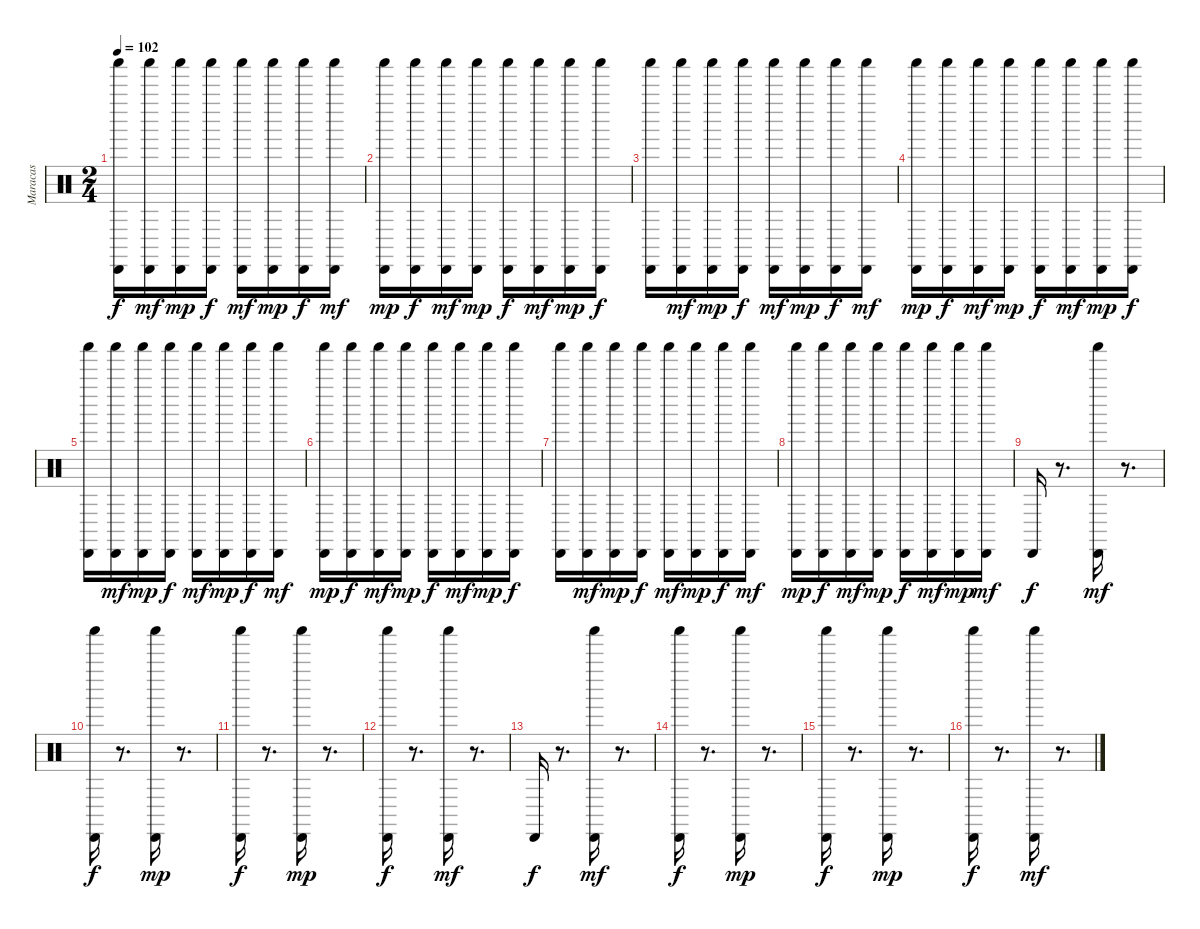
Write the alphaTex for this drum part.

\track ("Maracas" "Maracas") {instrument percussion}
\staff {score}
\articulation defaults
\ts (2 4)
\tempo 102
\clef neutral
\ks c
("Shaker (hit)" "Cabasa (hit)").16{dy f} ("Shaker (hit)" "Cabasa (hit)").16{dy mf} ("Shaker (hit)" "Cabasa (hit)").16{dy mp} ("Shaker (hit)" "Cabasa (hit)").16{dy f} ("Shaker (hit)" "Cabasa (hit)").16{dy mf} ("Shaker (hit)" "Cabasa (hit)").16{dy mp} ("Shaker (hit)" "Cabasa (hit)").16{dy f} ("Shaker (hit)" "Cabasa (hit)").16{dy mf} |
("Shaker (hit)" "Cabasa (hit)").16{dy mp} ("Shaker (hit)" "Cabasa (hit)").16{dy f} ("Shaker (hit)" "Cabasa (hit)").16{dy mf} ("Shaker (hit)" "Cabasa (hit)").16{dy mp} ("Shaker (hit)" "Cabasa (hit)").16{dy f} ("Shaker (hit)" "Cabasa (hit)").16{dy mf} ("Shaker (hit)" "Cabasa (hit)").16{dy mp} ("Shaker (hit)" "Cabasa (hit)").16{dy f} |
("Cabasa (hit)" "Shaker (hit)").16 ("Cabasa (hit)" "Shaker (hit)").16{dy mf} ("Cabasa (hit)" "Shaker (hit)").16{dy mp} ("Cabasa (hit)" "Shaker (hit)").16{dy f} ("Cabasa (hit)" "Shaker (hit)").16{dy mf} ("Cabasa (hit)" "Shaker (hit)").16{dy mp} ("Cabasa (hit)" "Shaker (hit)").16{dy f} ("Cabasa (hit)" "Shaker (hit)").16{dy mf} |
("Cabasa (hit)" "Shaker (hit)").16{dy mp} ("Cabasa (hit)" "Shaker (hit)").16{dy f} ("Cabasa (hit)" "Shaker (hit)").16{dy mf} ("Cabasa (hit)" "Shaker (hit)").16{dy mp} ("Cabasa (hit)" "Shaker (hit)").16{dy f} ("Cabasa (hit)" "Shaker (hit)").16{dy mf} ("Cabasa (hit)" "Shaker (hit)").16{dy mp} ("Cabasa (hit)" "Shaker (hit)").16{dy f} |
("Cabasa (hit)" "Shaker (hit)").16 ("Cabasa (hit)" "Shaker (hit)").16{dy mf} ("Cabasa (hit)" "Shaker (hit)").16{dy mp} ("Cabasa (hit)" "Shaker (hit)").16{dy f} ("Cabasa (hit)" "Shaker (hit)").16{dy mf} ("Cabasa (hit)" "Shaker (hit)").16{dy mp} ("Cabasa (hit)" "Shaker (hit)").16{dy f} ("Cabasa (hit)" "Shaker (hit)").16{dy mf} |
("Cabasa (hit)" "Shaker (hit)").16{dy mp} ("Cabasa (hit)" "Shaker (hit)").16{dy f} ("Cabasa (hit)" "Shaker (hit)").16{dy mf} ("Cabasa (hit)" "Shaker (hit)").16{dy mp} ("Cabasa (hit)" "Shaker (hit)").16{dy f} ("Cabasa (hit)" "Shaker (hit)").16{dy mf} ("Cabasa (hit)" "Shaker (hit)").16{dy mp} ("Cabasa (hit)" "Shaker (hit)").16{dy f} |
("Cabasa (hit)" "Shaker (hit)").16 ("Cabasa (hit)" "Shaker (hit)").16{dy mf} ("Cabasa (hit)" "Shaker (hit)").16{dy mp} ("Cabasa (hit)" "Shaker (hit)").16{dy f} ("Cabasa (hit)" "Shaker (hit)").16{dy mf} ("Cabasa (hit)" "Shaker (hit)").16{dy mp} ("Cabasa (hit)" "Shaker (hit)").16{dy f} ("Cabasa (hit)" "Shaker (hit)").16{dy mf} |
("Cabasa (hit)" "Shaker (hit)").16{dy mp} ("Cabasa (hit)" "Shaker (hit)").16{dy f} ("Cabasa (hit)" "Shaker (hit)").16{dy mf} ("Cabasa (hit)" "Shaker (hit)").16{dy mp} ("Cabasa (hit)" "Shaker (hit)").16{dy f} ("Cabasa (hit)" "Shaker (hit)").16{dy mf} ("Cabasa (hit)" "Shaker (hit)").16{dy mp} ("Cabasa (hit)" "Shaker (hit)").16{dy mf} |
"Cabasa (hit)".16{dy f} r.8{d} ("Shaker (hit)" "Cabasa (hit)").16{dy mf} r.8{d} |
("Shaker (hit)" "Cabasa (hit)").16{dy f} r.8{d} ("Shaker (hit)" "Cabasa (hit)").16{dy mp} r.8{d} |
("Cabasa (hit)" "Shaker (hit)").16{dy f} r.8{d} ("Cabasa (hit)" "Shaker (hit)").16{dy mp} r.8{d} |
("Cabasa (hit)" "Shaker (hit)").16{dy f} r.8{d} ("Cabasa (hit)" "Shaker (hit)").16{dy mf} r.8{d} |
"Cabasa (hit)".16{dy f} r.8{d} ("Shaker (hit)" "Cabasa (hit)").16{dy mf} r.8{d} |
("Shaker (hit)" "Cabasa (hit)").16{dy f} r.8{d} ("Shaker (hit)" "Cabasa (hit)").16{dy mp} r.8{d} |
("Cabasa (hit)" "Shaker (hit)").16{dy f} r.8{d} ("Cabasa (hit)" "Shaker (hit)").16{dy mp} r.8{d} |
("Cabasa (hit)" "Shaker (hit)").16{dy f} r.8{d} ("Cabasa (hit)" "Shaker (hit)").16{dy mf} r.8{d}
